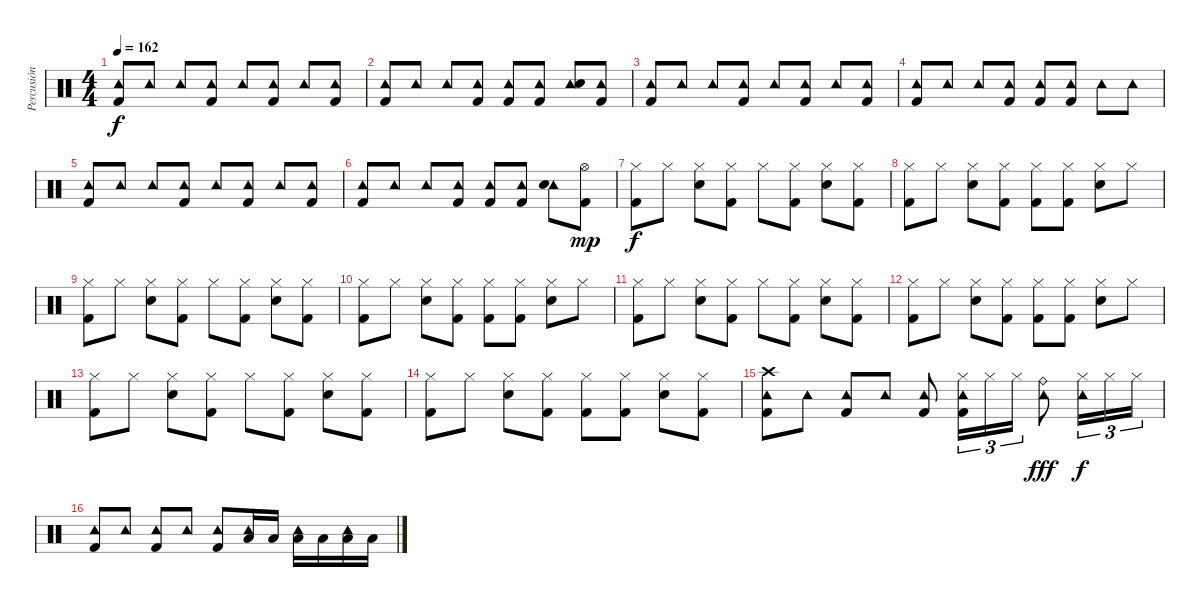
\track ("Percusión" "Percusión") {instrument percussion}
\staff {score}
\articulation defaults
\ts (4 4)
\tempo 162
\clef neutral
\ks c
("Tambourine (hit)" "Kick (hit) 2").8{dy f} "Tambourine (hit)".8 "Tambourine (hit)".8 ("Tambourine (hit)" "Kick (hit) 2").8 "Tambourine (hit)".8 ("Tambourine (hit)" "Kick (hit) 2").8 "Tambourine (hit)".8 ("Tambourine (hit)" "Kick (hit) 2").8 |
("Tambourine (hit)" "Kick (hit) 2").8 "Tambourine (hit)".8 "Tambourine (hit)".8 ("Tambourine (hit)" "Kick (hit) 2").8 ("Tambourine (hit)" "Kick (hit) 2").8 ("Tambourine (hit)" "Kick (hit) 2").8 ("Tambourine (hit)" "Snare (hit) 2").8 ("Tambourine (hit)" "Kick (hit) 2").8 |
("Tambourine (hit)" "Kick (hit) 2").8 "Tambourine (hit)".8 "Tambourine (hit)".8 ("Tambourine (hit)" "Kick (hit) 2").8 "Tambourine (hit)".8 ("Tambourine (hit)" "Kick (hit) 2").8 "Tambourine (hit)".8 ("Tambourine (hit)" "Kick (hit) 2").8 |
("Tambourine (hit)" "Kick (hit) 2").8 "Tambourine (hit)".8 "Tambourine (hit)".8 ("Tambourine (hit)" "Kick (hit) 2").8 ("Tambourine (hit)" "Kick (hit) 2").8 ("Tambourine (hit)" "Kick (hit) 2").8 "Tambourine (hit)".8 "Tambourine (hit)".8 |
("Tambourine (hit)" "Kick (hit) 2").8 "Tambourine (hit)".8 "Tambourine (hit)".8 ("Tambourine (hit)" "Kick (hit) 2").8 "Tambourine (hit)".8 ("Tambourine (hit)" "Kick (hit) 2").8 "Tambourine (hit)".8 ("Tambourine (hit)" "Kick (hit) 2").8 |
("Tambourine (hit)" "Kick (hit) 2").8 "Tambourine (hit)".8 "Tambourine (hit)".8 ("Tambourine (hit)" "Kick (hit) 2").8 ("Tambourine (hit)" "Kick (hit) 2").8 ("Tambourine (hit)" "Kick (hit) 2").8 ("Tambourine (hit)" "Snare (hit) 2").8 ("Hi-Hat (open)" "Kick (hit) 2").8{dy mp} |
("Hi-Hat (closed)" "Kick (hit) 2").8{dy f} "Hi-Hat (closed)".8 ("Hi-Hat (closed)" "Snare (hit) 2").8 ("Hi-Hat (closed)" "Kick (hit) 2").8 "Hi-Hat (closed)".8 ("Hi-Hat (closed)" "Kick (hit) 2").8 ("Hi-Hat (closed)" "Snare (hit) 2").8 ("Hi-Hat (closed)" "Kick (hit) 2").8 |
("Hi-Hat (closed)" "Kick (hit) 2").8 "Hi-Hat (closed)".8 ("Hi-Hat (closed)" "Snare (hit) 2").8 ("Hi-Hat (closed)" "Kick (hit) 2").8 ("Hi-Hat (closed)" "Kick (hit) 2").8 ("Hi-Hat (closed)" "Kick (hit) 2").8 ("Hi-Hat (closed)" "Snare (hit) 2").8 "Hi-Hat (closed)".8 |
("Hi-Hat (closed)" "Kick (hit) 2").8 "Hi-Hat (closed)".8 ("Hi-Hat (closed)" "Snare (hit) 2").8 ("Hi-Hat (closed)" "Kick (hit) 2").8 "Hi-Hat (closed)".8 ("Hi-Hat (closed)" "Kick (hit) 2").8 ("Hi-Hat (closed)" "Snare (hit) 2").8 ("Hi-Hat (closed)" "Kick (hit) 2").8 |
("Hi-Hat (closed)" "Kick (hit) 2").8 "Hi-Hat (closed)".8 ("Hi-Hat (closed)" "Snare (hit) 2").8 ("Hi-Hat (closed)" "Kick (hit) 2").8 ("Hi-Hat (closed)" "Kick (hit) 2").8 ("Hi-Hat (closed)" "Kick (hit) 2").8 ("Hi-Hat (closed)" "Snare (hit) 2").8 "Hi-Hat (closed)".8 |
("Hi-Hat (closed)" "Kick (hit) 2").8 "Hi-Hat (closed)".8 ("Hi-Hat (closed)" "Snare (hit) 2").8 ("Hi-Hat (closed)" "Kick (hit) 2").8 "Hi-Hat (closed)".8 ("Hi-Hat (closed)" "Kick (hit) 2").8 ("Hi-Hat (closed)" "Snare (hit) 2").8 ("Hi-Hat (closed)" "Kick (hit) 2").8 |
("Hi-Hat (closed)" "Kick (hit) 2").8 "Hi-Hat (closed)".8 ("Hi-Hat (closed)" "Snare (hit) 2").8 ("Hi-Hat (closed)" "Kick (hit) 2").8 ("Hi-Hat (closed)" "Kick (hit) 2").8 ("Hi-Hat (closed)" "Kick (hit) 2").8 ("Hi-Hat (closed)" "Snare (hit) 2").8 "Hi-Hat (closed)".8 |
("Hi-Hat (closed)" "Kick (hit) 2").8 "Hi-Hat (closed)".8 ("Hi-Hat (closed)" "Snare (hit) 2").8 ("Hi-Hat (closed)" "Kick (hit) 2").8 "Hi-Hat (closed)".8 ("Hi-Hat (closed)" "Kick (hit) 2").8 ("Hi-Hat (closed)" "Snare (hit) 2").8 ("Hi-Hat (closed)" "Kick (hit) 2").8 |
("Hi-Hat (closed)" "Kick (hit) 2").8 "Hi-Hat (closed)".8 ("Hi-Hat (closed)" "Snare (hit) 2").8 ("Hi-Hat (closed)" "Kick (hit) 2").8 ("Hi-Hat (closed)" "Kick (hit) 2").8 ("Hi-Hat (closed)" "Kick (hit) 2").8 ("Hi-Hat (closed)" "Snare (hit) 2").8 ("Hi-Hat (closed)" "Kick (hit) 2").8 |
("Crash high (hit)" "Kick (hit) 2" "Tambourine (hit)").8 "Tambourine (hit)".8 ("Kick (hit) 2" "Tambourine (hit)").8 "Tambourine (hit)".8 ("Kick (hit) 2" "Tambourine (hit)").8 ("Kick (hit) 2" "Hi-Hat (closed)" "Tambourine (hit)").16{tu (3 2)} "Hi-Hat (closed)".16{tu (3 2)} "Hi-Hat (closed)".16{tu (3 2)} ("Ride (bell)" "Tambourine (hit)").8{dy fff} ("Hi-Hat (closed)" "Tambourine (hit)").16{tu (3 2) dy f} "Hi-Hat (closed)".16{tu (3 2)} "Hi-Hat (closed)".16{tu (3 2)} |
("Tambourine (hit)" "Kick (hit) 2").8 "Tambourine (hit)".8 ("Tambourine (hit)" "Kick (hit) 2").8 "Tambourine (hit)".8 ("Tambourine (hit)" "Kick (hit) 2").8 ("Tambourine (hit)" "Low Tom (hit)").16 "Low Tom (hit)".16 ("Tambourine (hit)" "Low Tom (hit)").16 "Low Tom (hit)".16 ("Tambourine (hit)" "Low Tom (hit)").16 "Low Tom (hit)".16
